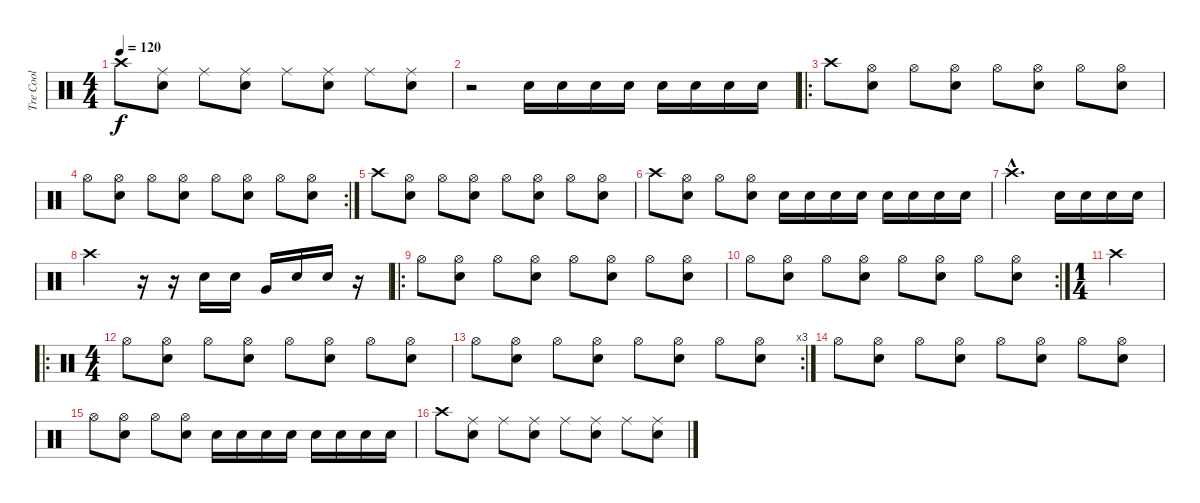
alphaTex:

\track ("Tre Cool" "Tre Cool") {instrument percussion}
\staff {score}
\articulation defaults
\ts (4 4)
\tempo 120
\clef neutral
\ks c "Crash high (hit)".8{dy f}
("Electric Snare (hit)" "Ride (middle)").8 "Ride (middle)".8 ("Electric Snare (hit)" "Ride (middle)").8 "Ride (middle)".8 ("Electric Snare (hit)" "Ride (middle)").8 "Ride (middle)".8 ("Electric Snare (hit)" "Ride (middle)").8 |
r.2 "Electric Snare (hit)".16 "Electric Snare (hit)".16 "Electric Snare (hit)".16 "Electric Snare (hit)".16 "Electric Snare (hit)".16 "Electric Snare (hit)".16 "Electric Snare (hit)".16 "Electric Snare (hit)".16 |
\ro "Crash high (hit)".8
("Electric Snare (hit)" "Hi-Hat (open)").8 "Hi-Hat (open)".8 ("Electric Snare (hit)" "Hi-Hat (open)").8 "Hi-Hat (open)".8 ("Electric Snare (hit)" "Hi-Hat (open)").8 "Hi-Hat (open)".8 ("Electric Snare (hit)" "Hi-Hat (open)").8 |
\rc 2 "Hi-Hat (open)".8
("Electric Snare (hit)" "Hi-Hat (open)").8 "Hi-Hat (open)".8 ("Electric Snare (hit)" "Hi-Hat (open)").8 "Hi-Hat (open)".8 ("Electric Snare (hit)" "Hi-Hat (open)").8 "Hi-Hat (open)".8 ("Electric Snare (hit)" "Hi-Hat (open)").8 |
"Crash high (hit)".8 ("Electric Snare (hit)" "Hi-Hat (open)").8 "Hi-Hat (open)".8 ("Electric Snare (hit)" "Hi-Hat (open)").8 "Hi-Hat (open)".8 ("Electric Snare (hit)" "Hi-Hat (open)").8 "Hi-Hat (open)".8 ("Electric Snare (hit)" "Hi-Hat (open)").8 |
"Crash high (hit)".8 ("Electric Snare (hit)" "Hi-Hat (open)").8 "Hi-Hat (open)".8 ("Electric Snare (hit)" "Hi-Hat (open)").8 "Electric Snare (hit)".16 "Electric Snare (hit)".16 "Electric Snare (hit)".16 "Electric Snare (hit)".16 "Electric Snare (hit)".16 "Electric Snare (hit)".16 "Electric Snare (hit)".16 "Electric Snare (hit)".16 |
"Crash high (hit)"{hac}.2{d} "Electric Snare (hit)".16 "Electric Snare (hit)".16 "Electric Snare (hit)".16 "Electric Snare (hit)".16 |
"Crash high (hit)".2 r.16 r.16 "Electric Snare (hit)".16 "Electric Snare (hit)".16 "Very Low Tom (hit)".16 "Electric Snare (hit)".16 "Electric Snare (hit)".16 r.16 |
\ro "Hi-Hat (open)".8
("Electric Snare (hit)" "Hi-Hat (open)").8 "Hi-Hat (open)".8 ("Electric Snare (hit)" "Hi-Hat (open)").8 "Hi-Hat (open)".8 ("Electric Snare (hit)" "Hi-Hat (open)").8 "Hi-Hat (open)".8 ("Electric Snare (hit)" "Hi-Hat (open)").8 |
\rc 2 "Hi-Hat (open)".8
("Electric Snare (hit)" "Hi-Hat (open)").8 "Hi-Hat (open)".8 ("Electric Snare (hit)" "Hi-Hat (open)").8 "Hi-Hat (open)".8 ("Electric Snare (hit)" "Hi-Hat (open)").8 "Hi-Hat (open)".8 ("Electric Snare (hit)" "Hi-Hat (open)").8 |
\ts (1 4)
"Crash high (hit)"{x}.4 |
\ro
\ts (4 4)
"Hi-Hat (open)".8 ("Electric Snare (hit)" "Hi-Hat (open)").8 "Hi-Hat (open)".8 ("Electric Snare (hit)" "Hi-Hat (open)").8 "Hi-Hat (open)".8 ("Electric Snare (hit)" "Hi-Hat (open)").8 "Hi-Hat (open)".8 ("Electric Snare (hit)" "Hi-Hat (open)").8 |
\rc 3 "Hi-Hat (open)".8
("Electric Snare (hit)" "Hi-Hat (open)").8 "Hi-Hat (open)".8 ("Electric Snare (hit)" "Hi-Hat (open)").8 "Hi-Hat (open)".8 ("Electric Snare (hit)" "Hi-Hat (open)").8 "Hi-Hat (open)".8 ("Electric Snare (hit)" "Hi-Hat (open)").8 |
"Hi-Hat (open)".8 ("Electric Snare (hit)" "Hi-Hat (open)").8 "Hi-Hat (open)".8 ("Electric Snare (hit)" "Hi-Hat (open)").8 "Hi-Hat (open)".8 ("Electric Snare (hit)" "Hi-Hat (open)").8 "Hi-Hat (open)".8 ("Electric Snare (hit)" "Hi-Hat (open)").8 |
"Hi-Hat (open)".8 ("Electric Snare (hit)" "Hi-Hat (open)").8 "Hi-Hat (open)".8 ("Electric Snare (hit)" "Hi-Hat (open)").8 "Electric Snare (hit)".16 "Electric Snare (hit)".16 "Electric Snare (hit)".16 "Electric Snare (hit)".16 "Electric Snare (hit)".16 "Electric Snare (hit)".16 "Electric Snare (hit)".16 "Electric Snare (hit)".16 |
"Crash high (hit)".8 ("Electric Snare (hit)" "Ride (middle)").8 "Ride (middle)".8 ("Electric Snare (hit)" "Ride (middle)").8 "Ride (middle)".8 ("Electric Snare (hit)" "Ride (middle)").8 "Ride (middle)".8 ("Electric Snare (hit)" "Ride (middle)").8
